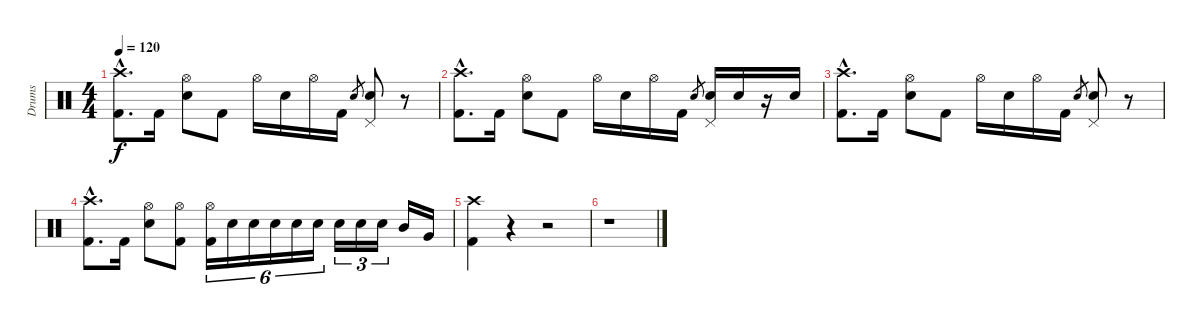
\track ("Drums" "Drums") {instrument percussion}
\staff {score}
\articulation defaults
\ts (4 4)
\tempo 120
\clef neutral
\ks c
("Crash high (hit)"{hac} "Kick (hit) 2"{hac}).8{d dy f} "Kick (hit) 2".16 ("Hi-Hat (open)" "Electric Snare (hit)").8 "Kick (hit) 2".8 "Hi-Hat (open)".16 "Electric Snare (hit)".16 "Hi-Hat (open)".16 "Kick (hit) 2".16 "Electric Snare (hit)".8{gr} ("Electric Snare (hit)" "Pedal Hi-Hat (hit)").8 r.8 |
("Crash high (hit)"{hac} "Kick (hit) 2"{hac}).8{d} "Kick (hit) 2".16 ("Hi-Hat (open)" "Electric Snare (hit)").8 "Kick (hit) 2".8 "Hi-Hat (open)".16 "Electric Snare (hit)".16 "Hi-Hat (open)".16 "Kick (hit) 2".16 "Electric Snare (hit)".8{gr} ("Electric Snare (hit)" "Pedal Hi-Hat (hit)").16 "Electric Snare (hit)".16 r.16 "Electric Snare (hit)".16 |
("Crash high (hit)"{hac} "Kick (hit) 2"{hac}).8{d} "Kick (hit) 2".16 ("Hi-Hat (open)" "Electric Snare (hit)").8 "Kick (hit) 2".8 "Hi-Hat (open)".16 "Electric Snare (hit)".16 "Hi-Hat (open)".16 "Kick (hit) 2".16 "Electric Snare (hit)".8{gr} ("Electric Snare (hit)" "Pedal Hi-Hat (hit)").8 r.8 |
("Crash high (hit)"{hac} "Kick (hit) 2"{hac}).8{d} "Kick (hit) 2".16 ("Hi-Hat (open)" "Electric Snare (hit)").8 ("Hi-Hat (open)" "Kick (hit) 2").8 ("Hi-Hat (open)" "Kick (hit) 2").16{tu (6 4)} "Electric Snare (hit)".16{tu (6 4)} "Electric Snare (hit)".16{tu (6 4)} "Electric Snare (hit)".16{tu (6 4)} "Electric Snare (hit)".16{tu (6 4)} "Electric Snare (hit)".16{tu (6 4)} "Electric Snare (hit)".16{tu (3 2)} "Electric Snare (hit)".16{tu (3 2)} "Electric Snare (hit)".16{tu (3 2)} "Mid Tom (hit)".16 "Very Low Tom (hit)".16 |
("Crash high (hit)" "Kick (hit) 2").4 r.4 r.2 |
r.1
